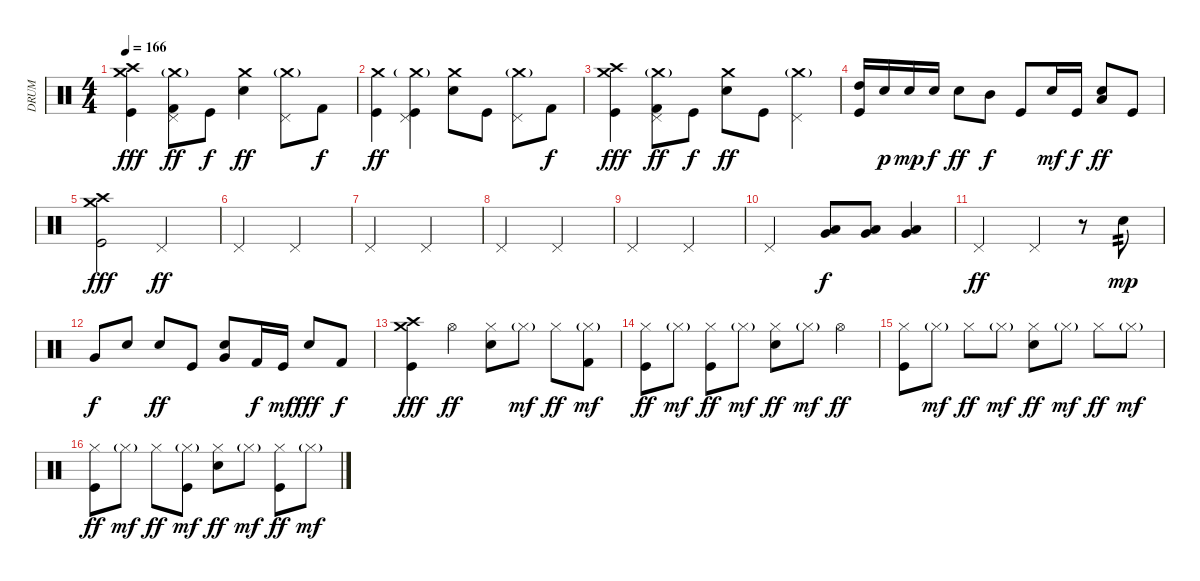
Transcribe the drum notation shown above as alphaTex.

\track ("DRUM" "DRUM") {instrument percussion}
\staff {score}
\articulation defaults
\ts (4 4)
\tempo 166
\clef neutral
\ks c
("Crash medium (hit)" "Crash high (hit)" "Kick (hit)").4{dy fff} ("Crash medium (hit)"{g} "Pedal Hi-Hat (hit)" "Kick (hit) 2").8{dy ff} "Kick (hit)".8{dy f} ("Crash medium (hit)" "Electric Snare (hit)").4{dy ff} ("Crash medium (hit)"{g} "Pedal Hi-Hat (hit)").8 "Kick (hit) 2".8{dy f} |
("Crash medium (hit)" "Kick (hit)").4{dy ff} ("Crash medium (hit)"{g} "Pedal Hi-Hat (hit)" "Kick (hit)").4 ("Crash medium (hit)" "Electric Snare (hit)").8 "Kick (hit)".8 ("Crash medium (hit)"{g} "Pedal Hi-Hat (hit)").8 "Kick (hit) 2".8{dy f} |
("Crash medium (hit)" "Crash high (hit)" "Kick (hit)").4{dy fff} ("Crash medium (hit)"{g} "Pedal Hi-Hat (hit)" "Kick (hit) 2").8{dy ff} "Kick (hit)".8{dy f} ("Crash medium (hit)" "Electric Snare (hit)").8{dy ff} "Kick (hit)".8 ("Crash medium (hit)"{g} "Pedal Hi-Hat (hit)").4 |
("High Tom (hit)" "Kick (hit)").16 "Electric Snare (hit)".16{dy p} "Snare (hit) 2".16{dy mp} "Electric Snare (hit)".16{dy f} "Snare (hit) 2".8{dy ff} "Mid Tom (hit)".8{dy f} "Kick (hit)".8 "Electric Snare (hit)".16{dy mf} "Kick (hit)".16{dy f} ("Electric Snare (hit)" "Low Tom (hit)").8{dy ff} "Kick (hit)".8 |
("Crash medium (hit)" "Crash high (hit)" "Kick (hit)").2{dy fff} "Pedal Hi-Hat (hit)".2{dy ff} |
"Pedal Hi-Hat (hit)".2 "Pedal Hi-Hat (hit)".2 |
"Pedal Hi-Hat (hit)".2 "Pedal Hi-Hat (hit)".2 |
"Pedal Hi-Hat (hit)".2 "Pedal Hi-Hat (hit)".2 |
"Pedal Hi-Hat (hit)".2 "Pedal Hi-Hat (hit)".2 |
"Pedal Hi-Hat (hit)".2 ("Very Low Tom (hit)" "Low Floor Tom (hit)").8{dy f} ("Very Low Tom (hit)" "Low Floor Tom (hit)").8 ("Very Low Tom (hit)" "Low Floor Tom (hit)").4 |
"Pedal Hi-Hat (hit)".2{dy ff} "Pedal Hi-Hat (hit)".4 r.8 "Electric Snare (hit)".8{tp 2 dy mp} |
"Very Low Tom (hit)".8{dy f} "Electric Snare (hit)".8 "Snare (hit) 2".8{dy ff} "Kick (hit)".8 ("Electric Snare (hit)" "Very Low Tom (hit)").8 "Kick (hit) 2".16{dy f} "Kick (hit)".16{dy mf} "Snare (hit) 2".8{dy fff} "Kick (hit) 2".8{dy f} |
("Crash high (hit)" "Crash medium (hit)" "Kick (hit)").4{dy fff} "Hi-Hat (open)".4{dy ff} ("Hi-Hat (closed)" "Electric Snare (hit)").8 "Hi-Hat (closed)"{g}.8{dy mf} "Hi-Hat (closed)".8{dy ff} ("Hi-Hat (closed)"{g} "Kick (hit) 2").8{dy mf} |
("Hi-Hat (closed)" "Kick (hit)").8{dy ff} "Hi-Hat (closed)"{g}.8{dy mf} ("Hi-Hat (closed)" "Kick (hit)").8{dy ff} "Hi-Hat (closed)"{g}.8{dy mf} ("Hi-Hat (closed)" "Electric Snare (hit)").8{dy ff} "Hi-Hat (closed)"{g}.8{dy mf} "Hi-Hat (open)".4{dy ff} |
("Hi-Hat (closed)" "Kick (hit)").8 "Hi-Hat (closed)"{g}.8{dy mf} "Hi-Hat (closed)".8{dy ff} "Hi-Hat (closed)"{g}.8{dy mf} ("Hi-Hat (closed)" "Electric Snare (hit)").8{dy ff} "Hi-Hat (closed)"{g}.8{dy mf} "Hi-Hat (closed)".8{dy ff} "Hi-Hat (closed)"{g}.8{dy mf} |
("Hi-Hat (closed)" "Kick (hit)").8{dy ff} "Hi-Hat (closed)"{g}.8{dy mf} "Hi-Hat (closed)".8{dy ff} ("Hi-Hat (closed)"{g} "Kick (hit)").8{dy mf} ("Hi-Hat (closed)" "Electric Snare (hit)").8{dy ff} "Hi-Hat (closed)"{g}.8{dy mf} ("Hi-Hat (closed)" "Kick (hit)").8{dy ff} "Hi-Hat (closed)"{g}.8{dy mf}
